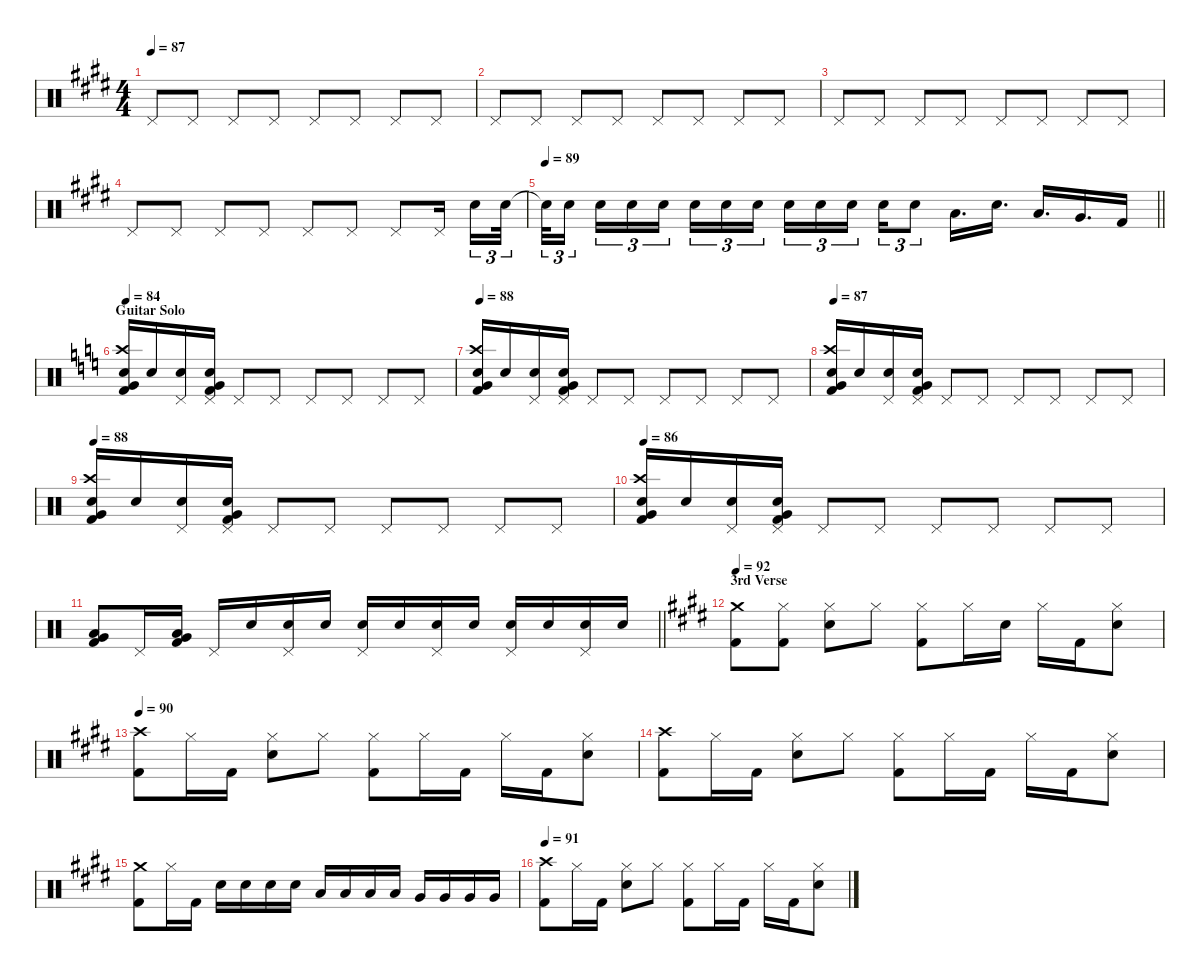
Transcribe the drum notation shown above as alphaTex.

\defaultSystemsLayout 4
\hideDynamics
\bracketExtendMode nobrackets
\singleTrackTrackNamePolicy hidden
\multiTrackTrackNamePolicy hidden
\firstSystemTrackNameMode fullname
\firstSystemTrackNameOrientation horizontal
\otherSystemsTrackNameOrientation horizontal
\track ("Drums" "drm.") {defaultSystemsLayout 4 instrument percussion}
\staff {score}
\articulation defaults
\ts (4 4)
\tempo 87
\clef neutral
\ks e "Pedal Hi-Hat (hit)"{acc forcenatural}.8{dy mp beam Up} "Pedal Hi-Hat (hit)"{acc forcenatural}.8{beam Up} "Pedal Hi-Hat (hit)"{acc forcenatural}.8{beam Up} "Pedal Hi-Hat (hit)"{acc forcenatural}.8{beam Up} "Pedal Hi-Hat (hit)"{acc forcenatural}.8{beam Up} "Pedal Hi-Hat (hit)"{acc forcenatural}.8{beam Up} "Pedal Hi-Hat (hit)"{acc forcenatural}.8{beam Up} "Pedal Hi-Hat (hit)"{acc forcenatural}.8{beam Up}
|
"Pedal Hi-Hat (hit)"{acc forcenatural}.8{beam Up} "Pedal Hi-Hat (hit)"{acc forcenatural}.8{beam Up} "Pedal Hi-Hat (hit)"{acc forcenatural}.8{beam Up} "Pedal Hi-Hat (hit)"{acc forcenatural}.8{beam Up} "Pedal Hi-Hat (hit)"{acc forcenatural}.8{beam Up} "Pedal Hi-Hat (hit)"{acc forcenatural}.8{beam Up} "Pedal Hi-Hat (hit)"{acc forcenatural}.8{beam Up} "Pedal Hi-Hat (hit)"{acc forcenatural}.8{beam Up} |
"Pedal Hi-Hat (hit)"{acc forcenatural}.8{beam Up} "Pedal Hi-Hat (hit)"{acc forcenatural}.8{beam Up} "Pedal Hi-Hat (hit)"{acc forcenatural}.8{beam Up} "Pedal Hi-Hat (hit)"{acc forcenatural}.8{beam Up} "Pedal Hi-Hat (hit)"{acc forcenatural}.8{beam Up} "Pedal Hi-Hat (hit)"{acc forcenatural}.8{beam Up} "Pedal Hi-Hat (hit)"{acc forcenatural}.8{beam Up} "Pedal Hi-Hat (hit)"{acc forcenatural}.8{beam Up} |
"Pedal Hi-Hat (hit)"{acc forcenatural}.8{beam Up} "Pedal Hi-Hat (hit)"{acc forcenatural}.8{beam Up} "Pedal Hi-Hat (hit)"{acc forcenatural}.8{beam Up} "Pedal Hi-Hat (hit)"{acc forcenatural}.8{beam Up} "Pedal Hi-Hat (hit)"{acc forcenatural}.8{beam Up} "Pedal Hi-Hat (hit)"{acc forcenatural}.8{beam Up} "Pedal Hi-Hat (hit)"{acc forcenatural}.8{beam Up} "Pedal Hi-Hat (hit)"{acc forcenatural}.16{beam Up} "Snare (hit) 2"{acc forcenatural}.16{tu (3 2) dy f beam Down} "Snare (hit) 2"{acc forcenatural}.32{tu (3 2) beam Down} |
\tempo 89
\barLineRight lightlight "Snare (hit) 2"{t acc forcenatural}.32{tu (3 2) beam Down} "Snare (hit) 2"{acc forcenatural}.16{tu (3 2) beam Down} "Snare (hit) 2"{acc forcenatural}.16{tu (3 2) beam Down} "Snare (hit) 2"{acc forcenatural}.16{tu (3 2) beam Down} "Snare (hit) 2"{acc forcenatural}.16{tu (3 2) beam Down} "Snare (hit) 2"{acc forcenatural}.16{tu (3 2) beam Down} "Snare (hit) 2"{acc forcenatural}.16{tu (3 2) beam Down} "Snare (hit) 2"{acc forcenatural}.16{tu (3 2) beam Down} "Snare (hit) 2"{acc forcenatural}.16{tu (3 2) beam Down} "Snare (hit) 2"{acc forcenatural}.16{tu (3 2) beam Down} "Snare (hit) 2"{acc forcenatural}.16{tu (3 2) beam Down} "Snare (hit) 2"{acc forcenatural}.16{tu (3 2) beam Down} "Snare (hit) 2"{acc forcenatural}.8{tu (3 2) beam Down} "Low Tom (hit)"{acc forcenatural}.16{d beam Down} "Snare (hit) 2"{acc forcenatural}.16{d beam Down} "Low Tom (hit)"{acc forcenatural}.16{d beam Up} "Very Low Tom (hit)"{acc forcenatural}.16{d beam Up} "Kick (hit) 2"{acc forcenatural}.16{beam Up}
|
\section ("" "Guitar Solo")
\tempo 84
\ks c
("Crash high (hit)" "Snare (hit) 2" "Very Low Tom (hit)" "Kick (hit) 2").16{dy mf beam Up} "Snare (hit) 2".16{dy mp beam Up} ("Pedal Hi-Hat (hit)" "Snare (hit) 2").16{dy mf beam Up} ("Pedal Hi-Hat (hit)" "Snare (hit) 2" "Very Low Tom (hit)" "Kick (hit) 2").16{beam Up} "Pedal Hi-Hat (hit)".8{beam Up} "Pedal Hi-Hat (hit)".8{beam Up} "Pedal Hi-Hat (hit)".8{beam Up} "Pedal Hi-Hat (hit)".8{beam Up} "Pedal Hi-Hat (hit)".8{beam Up} "Pedal Hi-Hat (hit)".8{beam Up} |
\tempo 88
("Crash high (hit)" "Snare (hit) 2" "Very Low Tom (hit)" "Kick (hit) 2").16{beam Up} "Snare (hit) 2".16{dy mp beam Up} ("Pedal Hi-Hat (hit)" "Snare (hit) 2").16{dy mf beam Up} ("Pedal Hi-Hat (hit)" "Snare (hit) 2" "Very Low Tom (hit)" "Kick (hit) 2").16{beam Up} "Pedal Hi-Hat (hit)".8{beam Up} "Pedal Hi-Hat (hit)".8{beam Up} "Pedal Hi-Hat (hit)".8{beam Up} "Pedal Hi-Hat (hit)".8{beam Up} "Pedal Hi-Hat (hit)".8{beam Up} "Pedal Hi-Hat (hit)".8{beam Up} |
\tempo 87
("Crash high (hit)" "Snare (hit) 2" "Very Low Tom (hit)" "Kick (hit) 2").16{beam Up} "Snare (hit) 2".16{dy mp beam Up} ("Pedal Hi-Hat (hit)" "Snare (hit) 2").16{dy mf beam Up} ("Pedal Hi-Hat (hit)" "Snare (hit) 2" "Very Low Tom (hit)" "Kick (hit) 2").16{beam Up} "Pedal Hi-Hat (hit)".8{beam Up} "Pedal Hi-Hat (hit)".8{beam Up} "Pedal Hi-Hat (hit)".8{beam Up} "Pedal Hi-Hat (hit)".8{beam Up} "Pedal Hi-Hat (hit)".8{beam Up} "Pedal Hi-Hat (hit)".8{beam Up} |
\tempo 88
("Crash high (hit)" "Snare (hit) 2" "Very Low Tom (hit)" "Kick (hit) 2").16{beam Up} "Snare (hit) 2".16{dy mp beam Up} ("Pedal Hi-Hat (hit)" "Snare (hit) 2").16{dy mf beam Up} ("Pedal Hi-Hat (hit)" "Snare (hit) 2" "Very Low Tom (hit)" "Kick (hit) 2").16{beam Up} "Pedal Hi-Hat (hit)".8{beam Up} "Pedal Hi-Hat (hit)".8{beam Up} "Pedal Hi-Hat (hit)".8{beam Up} "Pedal Hi-Hat (hit)".8{beam Up} "Pedal Hi-Hat (hit)".8{beam Up} "Pedal Hi-Hat (hit)".8{beam Up} |
\tempo 86
("Crash high (hit)" "Snare (hit) 2" "Very Low Tom (hit)" "Kick (hit) 2").16{beam Up} "Snare (hit) 2".16{dy mp beam Up} ("Pedal Hi-Hat (hit)" "Snare (hit) 2").16{dy mf beam Up} ("Pedal Hi-Hat (hit)" "Snare (hit) 2" "Very Low Tom (hit)" "Kick (hit) 2").16{beam Up} "Pedal Hi-Hat (hit)".8{beam Up} "Pedal Hi-Hat (hit)".8{beam Up} "Pedal Hi-Hat (hit)".8{beam Up} "Pedal Hi-Hat (hit)".8{beam Up} "Pedal Hi-Hat (hit)".8{beam Up} "Pedal Hi-Hat (hit)".8{beam Up} |
\barLineRight lightlight
("Very Low Tom (hit)" "Low Tom (hit)" "Kick (hit) 2").8{dy ff beam Up} "Pedal Hi-Hat (hit)".16{dy mf beam Up} ("Very Low Tom (hit)" "Low Tom (hit)" "Kick (hit) 2").16{dy ff beam Up} "Pedal Hi-Hat (hit)".16{dy mf beam Up} "Snare (hit) 2".16{dy f beam Up} ("Pedal Hi-Hat (hit)" "Snare (hit) 2").16{dy mf beam Up} "Snare (hit) 2".16{dy f beam Up} ("Pedal Hi-Hat (hit)" "Snare (hit) 2").16{dy mf beam Up} "Snare (hit) 2".16{dy f beam Up} ("Pedal Hi-Hat (hit)" "Snare (hit) 2").16{dy mf beam Up} "Snare (hit) 2".16{dy ff beam Up} ("Pedal Hi-Hat (hit)" "Snare (hit) 2").16{dy mf beam Up} "Snare (hit) 2".16{dy ff beam Up} ("Pedal Hi-Hat (hit)" "Snare (hit) 2").16{dy mf beam Up} "Snare (hit) 2".16{dy ff beam Up} |
\section ("" "3rd Verse")
\tempo 92
\ks e
("Crash medium (hit)"{acc forcenatural} "Kick (hit) 2"{acc forcenatural}).8{dy mf beam Down} ("Hi-Hat (closed)"{acc forcenatural} "Kick (hit) 2"{acc forcenatural}).8{beam Down} ("Hi-Hat (closed)"{acc forcenatural} "Snare (hit) 2"{acc forcenatural}).8{beam Down} "Hi-Hat (closed)"{acc forcenatural}.8{beam Down} ("Hi-Hat (closed)"{acc forcenatural} "Kick (hit) 2"{acc forcenatural}).8{beam Down} "Hi-Hat (closed)"{acc forcenatural}.16{beam Down} "Snare (hit) 2"{acc forcenatural}.16{dy f beam Down} "Hi-Hat (closed)"{acc forcenatural}.16{dy mf beam Down} "Kick (hit) 2"{acc forcenatural}.16{dy f beam Down} ("Hi-Hat (closed)"{acc forcenatural} "Snare (hit) 2"{acc forcenatural}).8{dy mf beam Down} |
\tempo 90
("Crash high (hit)"{acc forcenatural} "Kick (hit) 2"{acc forcenatural}).8{beam Down} "Hi-Hat (closed)"{acc forcenatural}.16{beam Down} "Kick (hit) 2"{acc forcenatural}.16{dy f beam Down} ("Hi-Hat (closed)"{acc forcenatural} "Snare (hit) 2"{acc forcenatural}).8{dy mf beam Down} "Hi-Hat (closed)"{acc forcenatural}.8{beam Down} ("Hi-Hat (closed)"{acc forcenatural} "Kick (hit) 2"{acc forcenatural}).8{beam Down} "Hi-Hat (closed)"{acc forcenatural}.16{beam Down} "Kick (hit) 2"{acc forcenatural}.16{dy f beam Down} "Hi-Hat (closed)"{acc forcenatural}.16{dy mf beam Down} "Kick (hit) 2"{acc forcenatural}.16{dy f beam Down} ("Hi-Hat (closed)"{acc forcenatural} "Snare (hit) 2"{acc forcenatural}).8{dy mf beam Down} |
("Crash high (hit)"{acc forcenatural} "Kick (hit) 2"{acc forcenatural}).8{beam Down} "Hi-Hat (closed)"{acc forcenatural}.16{beam Down} "Kick (hit) 2"{acc forcenatural}.16{dy f beam Down} ("Hi-Hat (closed)"{acc forcenatural} "Snare (hit) 2"{acc forcenatural}).8{dy mf beam Down} "Hi-Hat (closed)"{acc forcenatural}.8{beam Down} ("Hi-Hat (closed)"{acc forcenatural} "Kick (hit) 2"{acc forcenatural}).8{beam Down} "Hi-Hat (closed)"{acc forcenatural}.16{beam Down} "Kick (hit) 2"{acc forcenatural}.16{dy f beam Down} "Hi-Hat (closed)"{acc forcenatural}.16{dy mf beam Down} "Kick (hit) 2"{acc forcenatural}.16{dy f beam Down} ("Hi-Hat (closed)"{acc forcenatural} "Snare (hit) 2"{acc forcenatural}).8{dy mf beam Down} |
("Crash medium (hit)"{acc forcenatural} "Kick (hit) 2"{acc forcenatural}).8{beam Down} "Hi-Hat (closed)"{acc forcenatural}.16{beam Down} "Kick (hit) 2"{acc forcenatural}.16{dy f beam Down} "Snare (hit) 2"{acc forcenatural}.16{beam Down} "Snare (hit) 2"{acc forcenatural}.16{beam Down} "Snare (hit) 2"{acc forcenatural}.16{beam Down} "Snare (hit) 2"{acc forcenatural}.16{beam Down} "Low Tom (hit)"{acc forcenatural}.16{beam Up} "Low Tom (hit)"{acc forcenatural}.16{beam Up} "Low Tom (hit)"{acc forcenatural}.16{beam Up} "Low Tom (hit)"{acc forcenatural}.16{beam Up} "Very Low Tom (hit)"{acc forcenatural}.16{beam Up} "Very Low Tom (hit)"{acc forcenatural}.16{beam Up} "Very Low Tom (hit)"{acc forcenatural}.16{beam Up} "Very Low Tom (hit)"{acc forcenatural}.16{beam Up} |
\tempo 91
("Crash high (hit)"{acc forcenatural} "Kick (hit) 2"{acc forcenatural}).8{dy mf beam Down} "Hi-Hat (closed)"{acc forcenatural}.16{beam Down} "Kick (hit) 2"{acc forcenatural}.16{dy f beam Down} ("Hi-Hat (closed)"{acc forcenatural} "Snare (hit) 2"{acc forcenatural}).8{dy mf beam Down} "Hi-Hat (closed)"{acc forcenatural}.8{beam Down} ("Hi-Hat (closed)"{acc forcenatural} "Kick (hit) 2"{acc forcenatural}).8{beam Down} "Hi-Hat (closed)"{acc forcenatural}.16{beam Down} "Kick (hit) 2"{acc forcenatural}.16{dy f beam Down} "Hi-Hat (closed)"{acc forcenatural}.16{dy mf beam Down} "Kick (hit) 2"{acc forcenatural}.16{dy f beam Down} ("Hi-Hat (closed)"{acc forcenatural} "Snare (hit) 2"{acc forcenatural}).8{dy mf beam Down}
